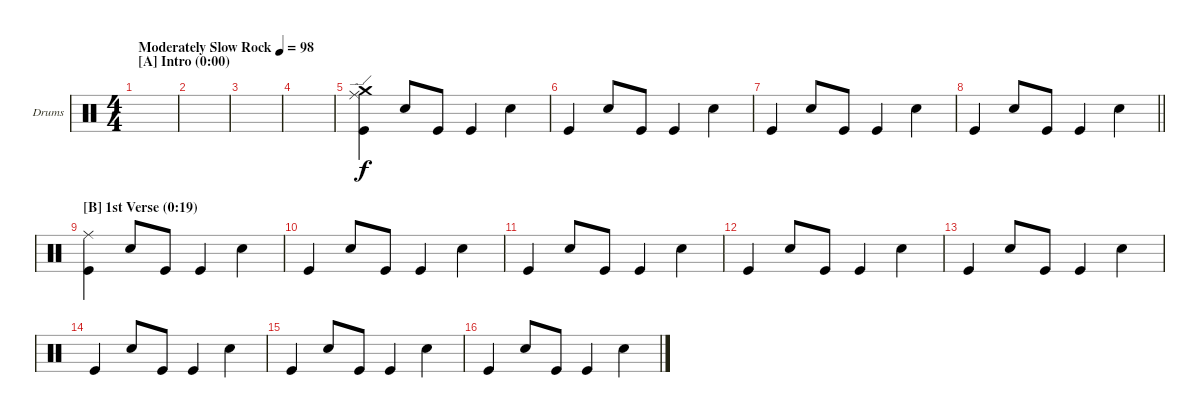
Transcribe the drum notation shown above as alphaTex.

\defaultSystemsLayout 4
\bracketExtendMode groupsimilarinstruments
\firstSystemTrackNameOrientation horizontal
\otherSystemsTrackNameOrientation horizontal
\track ("Drums" "Drums") {instrument percussion}
\staff {score}
\articulation defaults
\ts (4 4)
\section ("A" "Intro (0:00)")
\tempo (98 "Moderately Slow Rock")
\clef neutral
\scale
1.17024
\ks c
|
\scale
0.943253 |
\scale
0.943253 |
\scale
0.943253 |
\scale
1.07945 ("Kick (hit)" "Ride (edge)" "Crash medium (hit)").4 "Snare (hit) 2".8 "Kick (hit)".8 "Kick (hit)".4 "Snare (hit) 2".4 |
\scale
0.973518 "Kick (hit)".4 "Snare (hit) 2".8 "Kick (hit)".8 "Kick (hit)".4 "Snare (hit) 2".4 |
\scale
0.973518 "Kick (hit)".4 "Snare (hit) 2".8 "Kick (hit)".8 "Kick (hit)".4 "Snare (hit) 2".4 |
\scale
0.973518
\barLineRight lightlight "Kick (hit)".4 "Snare (hit) 2".8 "Kick (hit)".8 "Kick (hit)".4 "Snare (hit) 2".4
|
\section ("B" "1st Verse (0:19)")
\scale
1.07945 ("Kick (hit)" "Ride (middle)").4 "Snare (hit) 2".8 "Kick (hit)".8 "Kick (hit)".4 "Snare (hit) 2".4 |
\scale
0.973518 "Kick (hit)".4 "Snare (hit) 2".8 "Kick (hit)".8 "Kick (hit)".4 "Snare (hit) 2".4 |
\scale
0.973518 "Kick (hit)".4 "Snare (hit) 2".8 "Kick (hit)".8 "Kick (hit)".4 "Snare (hit) 2".4 |
\scale
0.973518 "Kick (hit)".4 "Snare (hit) 2".8 "Kick (hit)".8 "Kick (hit)".4 "Snare (hit) 2".4 |
\scale
1.07945 "Kick (hit)".4 "Snare (hit) 2".8 "Kick (hit)".8 "Kick (hit)".4 "Snare (hit) 2".4 |
\scale
0.973518 "Kick (hit)".4 "Snare (hit) 2".8 "Kick (hit)".8 "Kick (hit)".4 "Snare (hit) 2".4 |
\scale
0.973518 "Kick (hit)".4 "Snare (hit) 2".8 "Kick (hit)".8 "Kick (hit)".4 "Snare (hit) 2".4 |
\scale
0.973518 "Kick (hit)".4 "Snare (hit) 2".8 "Kick (hit)".8 "Kick (hit)".4 "Snare (hit) 2".4
